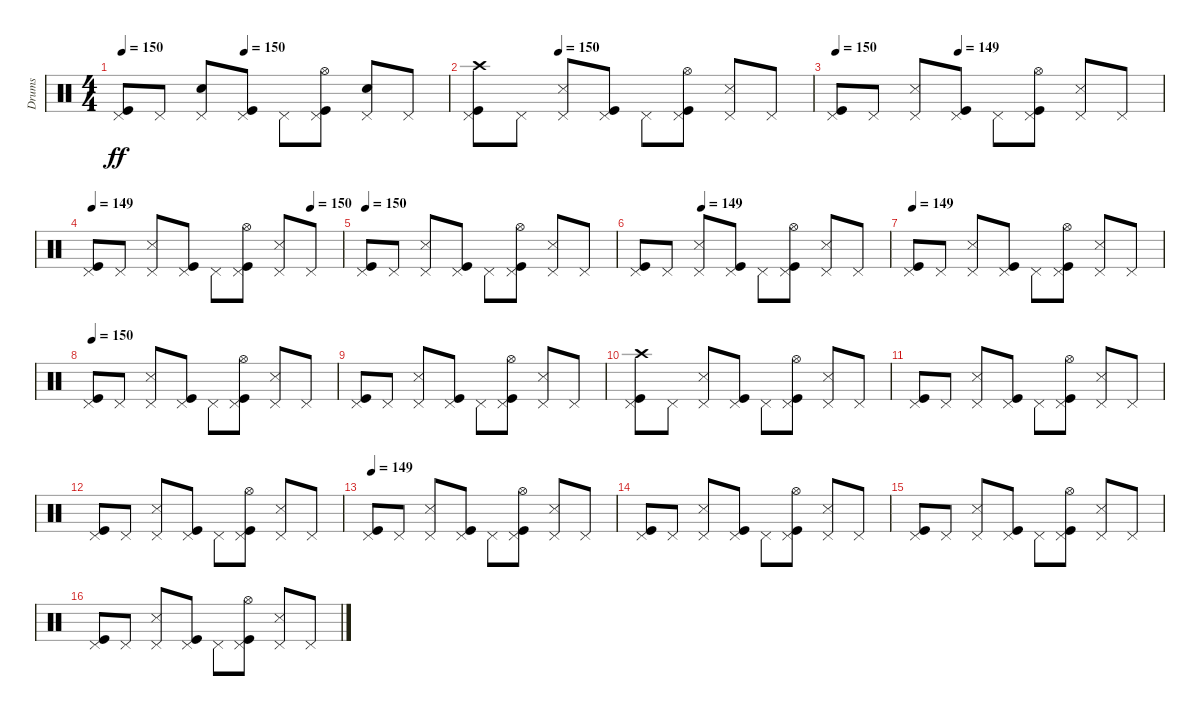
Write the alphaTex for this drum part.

\track ("Drums" "Drums") {instrument percussion}
\staff {score}
\articulation defaults
\ts (4 4)
\tempo 150
\tempo (150 0.375)
\clef neutral
\ks c
("Kick (hit)" "Pedal Hi-Hat (hit)").8{dy ff} "Pedal Hi-Hat (hit)".8 ("Pedal Hi-Hat (hit)" "Snare (hit) 2").8 ("Kick (hit)" "Pedal Hi-Hat (hit)").8 "Pedal Hi-Hat (hit)".8 ("Kick (hit)" "Pedal Hi-Hat (hit)" "Hi-Hat (open)").8 ("Pedal Hi-Hat (hit)" "Snare (hit) 2").8 "Pedal Hi-Hat (hit)".8 |
\tempo (150 0.25)
("Kick (hit)" "Pedal Hi-Hat (hit)" "Crash high (hit)").8 "Pedal Hi-Hat (hit)".8 ("Pedal Hi-Hat (hit)" "Metronome (hit)").8 ("Kick (hit)" "Pedal Hi-Hat (hit)").8 "Pedal Hi-Hat (hit)".8 ("Kick (hit)" "Pedal Hi-Hat (hit)" "Hi-Hat (open)").8 ("Pedal Hi-Hat (hit)" "Metronome (hit)").8 "Pedal Hi-Hat (hit)".8 |
\tempo 150
\tempo (149 0.375)
("Kick (hit)" "Pedal Hi-Hat (hit)").8 "Pedal Hi-Hat (hit)".8 ("Pedal Hi-Hat (hit)" "Metronome (hit)").8 ("Kick (hit)" "Pedal Hi-Hat (hit)").8 "Pedal Hi-Hat (hit)".8 ("Kick (hit)" "Pedal Hi-Hat (hit)" "Hi-Hat (open)").8 ("Pedal Hi-Hat (hit)" "Metronome (hit)").8 "Pedal Hi-Hat (hit)".8 |
\tempo 149
\tempo (150 0.875)
("Kick (hit)" "Pedal Hi-Hat (hit)").8 "Pedal Hi-Hat (hit)".8 ("Pedal Hi-Hat (hit)" "Metronome (hit)").8 ("Kick (hit)" "Pedal Hi-Hat (hit)").8 "Pedal Hi-Hat (hit)".8 ("Kick (hit)" "Pedal Hi-Hat (hit)" "Hi-Hat (open)").8 ("Pedal Hi-Hat (hit)" "Metronome (hit)").8 "Pedal Hi-Hat (hit)".8 |
\tempo 150
("Kick (hit)" "Pedal Hi-Hat (hit)").8 "Pedal Hi-Hat (hit)".8 ("Pedal Hi-Hat (hit)" "Metronome (hit)").8 ("Kick (hit)" "Pedal Hi-Hat (hit)").8 "Pedal Hi-Hat (hit)".8 ("Kick (hit)" "Pedal Hi-Hat (hit)" "Hi-Hat (open)").8 ("Pedal Hi-Hat (hit)" "Metronome (hit)").8 "Pedal Hi-Hat (hit)".8 |
\tempo (149 0.25)
("Kick (hit)" "Pedal Hi-Hat (hit)").8 "Pedal Hi-Hat (hit)".8 ("Pedal Hi-Hat (hit)" "Metronome (hit)").8 ("Kick (hit)" "Pedal Hi-Hat (hit)").8 "Pedal Hi-Hat (hit)".8 ("Kick (hit)" "Pedal Hi-Hat (hit)" "Hi-Hat (open)").8 ("Pedal Hi-Hat (hit)" "Metronome (hit)").8 "Pedal Hi-Hat (hit)".8 |
\tempo 149
("Kick (hit)" "Pedal Hi-Hat (hit)").8 "Pedal Hi-Hat (hit)".8 ("Pedal Hi-Hat (hit)" "Metronome (hit)").8 ("Kick (hit)" "Pedal Hi-Hat (hit)").8 "Pedal Hi-Hat (hit)".8 ("Kick (hit)" "Pedal Hi-Hat (hit)" "Hi-Hat (open)").8 ("Pedal Hi-Hat (hit)" "Metronome (hit)").8 "Pedal Hi-Hat (hit)".8 |
\tempo 150
("Kick (hit)" "Pedal Hi-Hat (hit)").8 "Pedal Hi-Hat (hit)".8 ("Pedal Hi-Hat (hit)" "Metronome (hit)").8 ("Kick (hit)" "Pedal Hi-Hat (hit)").8 "Pedal Hi-Hat (hit)".8 ("Kick (hit)" "Pedal Hi-Hat (hit)" "Hi-Hat (open)").8 ("Pedal Hi-Hat (hit)" "Metronome (hit)").8 "Pedal Hi-Hat (hit)".8 |
("Kick (hit)" "Pedal Hi-Hat (hit)").8 "Pedal Hi-Hat (hit)".8 ("Pedal Hi-Hat (hit)" "Metronome (hit)").8 ("Kick (hit)" "Pedal Hi-Hat (hit)").8 "Pedal Hi-Hat (hit)".8 ("Kick (hit)" "Pedal Hi-Hat (hit)" "Hi-Hat (open)").8 ("Pedal Hi-Hat (hit)" "Metronome (hit)").8 "Pedal Hi-Hat (hit)".8 |
("Kick (hit)" "Pedal Hi-Hat (hit)" "Crash high (hit)").8 "Pedal Hi-Hat (hit)".8 ("Pedal Hi-Hat (hit)" "Metronome (hit)").8 ("Kick (hit)" "Pedal Hi-Hat (hit)").8 "Pedal Hi-Hat (hit)".8 ("Kick (hit)" "Pedal Hi-Hat (hit)" "Hi-Hat (open)").8 ("Pedal Hi-Hat (hit)" "Metronome (hit)").8 "Pedal Hi-Hat (hit)".8 |
("Kick (hit)" "Pedal Hi-Hat (hit)").8 "Pedal Hi-Hat (hit)".8 ("Pedal Hi-Hat (hit)" "Metronome (hit)").8 ("Kick (hit)" "Pedal Hi-Hat (hit)").8 "Pedal Hi-Hat (hit)".8 ("Kick (hit)" "Pedal Hi-Hat (hit)" "Hi-Hat (open)").8 ("Pedal Hi-Hat (hit)" "Metronome (hit)").8 "Pedal Hi-Hat (hit)".8 |
("Kick (hit)" "Pedal Hi-Hat (hit)").8 "Pedal Hi-Hat (hit)".8 ("Pedal Hi-Hat (hit)" "Metronome (hit)").8 ("Kick (hit)" "Pedal Hi-Hat (hit)").8 "Pedal Hi-Hat (hit)".8 ("Kick (hit)" "Pedal Hi-Hat (hit)" "Hi-Hat (open)").8 ("Pedal Hi-Hat (hit)" "Metronome (hit)").8 "Pedal Hi-Hat (hit)".8 |
\tempo 149
("Kick (hit)" "Pedal Hi-Hat (hit)").8 "Pedal Hi-Hat (hit)".8 ("Pedal Hi-Hat (hit)" "Metronome (hit)").8 ("Kick (hit)" "Pedal Hi-Hat (hit)").8 "Pedal Hi-Hat (hit)".8 ("Kick (hit)" "Pedal Hi-Hat (hit)" "Hi-Hat (open)").8 ("Pedal Hi-Hat (hit)" "Metronome (hit)").8 "Pedal Hi-Hat (hit)".8 |
("Kick (hit)" "Pedal Hi-Hat (hit)").8 "Pedal Hi-Hat (hit)".8 ("Pedal Hi-Hat (hit)" "Metronome (hit)").8 ("Kick (hit)" "Pedal Hi-Hat (hit)").8 "Pedal Hi-Hat (hit)".8 ("Kick (hit)" "Pedal Hi-Hat (hit)" "Hi-Hat (open)").8 ("Pedal Hi-Hat (hit)" "Metronome (hit)").8 "Pedal Hi-Hat (hit)".8 |
("Kick (hit)" "Pedal Hi-Hat (hit)").8 "Pedal Hi-Hat (hit)".8 ("Pedal Hi-Hat (hit)" "Metronome (hit)").8 ("Kick (hit)" "Pedal Hi-Hat (hit)").8 "Pedal Hi-Hat (hit)".8 ("Kick (hit)" "Pedal Hi-Hat (hit)" "Hi-Hat (open)").8 ("Pedal Hi-Hat (hit)" "Metronome (hit)").8 "Pedal Hi-Hat (hit)".8 |
("Kick (hit)" "Pedal Hi-Hat (hit)").8 "Pedal Hi-Hat (hit)".8 ("Pedal Hi-Hat (hit)" "Metronome (hit)").8 ("Kick (hit)" "Pedal Hi-Hat (hit)").8 "Pedal Hi-Hat (hit)".8 ("Kick (hit)" "Pedal Hi-Hat (hit)" "Hi-Hat (open)").8 ("Pedal Hi-Hat (hit)" "Metronome (hit)").8 "Pedal Hi-Hat (hit)".8
